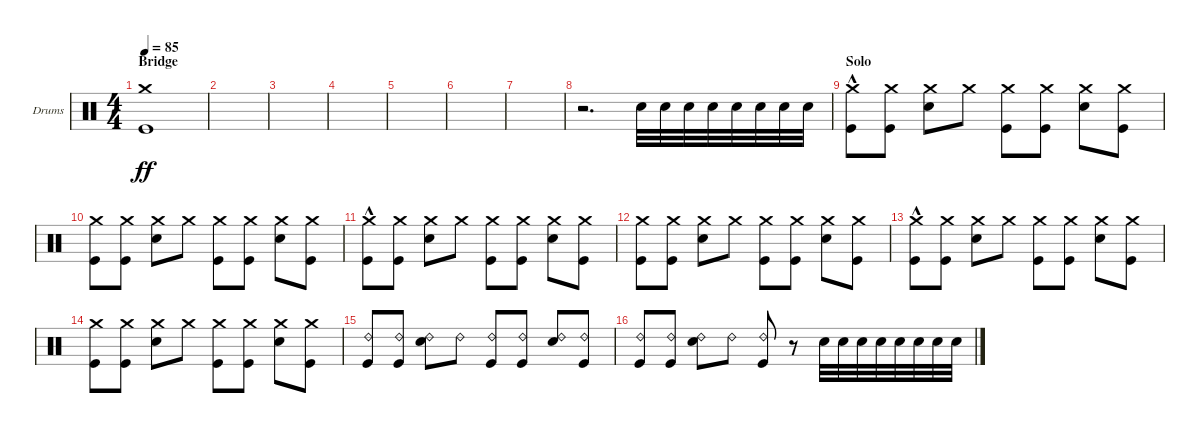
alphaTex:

\bracketExtendMode groupsimilarinstruments
\firstSystemTrackNameOrientation horizontal
\otherSystemsTrackNameOrientation horizontal
\track ("Drumkit" "Drums") {instrument percussion}
\staff {score}
\articulation defaults
\ts (4 4)
\section ("" "Bridge")
\tempo 85
\clef neutral
\ks c
("Kick (hit)" "Crash medium (hit)").1{dy ff} |
|
|
|
|
|
|
r.2{d} "Snare (hit) 2".32 "Snare (hit) 2".32 "Snare (hit) 2".32 "Snare (hit) 2".32 "Snare (hit) 2".32 "Snare (hit) 2".32 "Snare (hit) 2".32 "Snare (hit) 2".32 |
\section ("" "Solo")
("Kick (hit)"{hac} "Crash medium (hit)"{hac}).8 ("Kick (hit)" "Crash medium (hit)").8 ("Snare (hit) 2" "Crash medium (hit)").8 "Crash medium (hit)".8 ("Kick (hit)" "Crash medium (hit)").8 ("Kick (hit)" "Crash medium (hit)").8 ("Snare (hit) 2" "Crash medium (hit)").8 ("Kick (hit)" "Crash medium (hit)").8 |
("Kick (hit)" "Crash medium (hit)").8 ("Kick (hit)" "Crash medium (hit)").8 ("Snare (hit) 2" "Crash medium (hit)").8 "Crash medium (hit)".8 ("Kick (hit)" "Crash medium (hit)").8 ("Kick (hit)" "Crash medium (hit)").8 ("Snare (hit) 2" "Crash medium (hit)").8 ("Kick (hit)" "Crash medium (hit)").8 |
("Kick (hit)"{hac} "Crash medium (hit)"{hac}).8 ("Kick (hit)" "Crash medium (hit)").8 ("Snare (hit) 2" "Crash medium (hit)").8 "Crash medium (hit)".8 ("Kick (hit)" "Crash medium (hit)").8 ("Kick (hit)" "Crash medium (hit)").8 ("Snare (hit) 2" "Crash medium (hit)").8 ("Kick (hit)" "Crash medium (hit)").8 |
("Kick (hit)" "Crash medium (hit)").8 ("Kick (hit)" "Crash medium (hit)").8 ("Snare (hit) 2" "Crash medium (hit)").8 "Crash medium (hit)".8 ("Kick (hit)" "Crash medium (hit)").8 ("Kick (hit)" "Crash medium (hit)").8 ("Snare (hit) 2" "Crash medium (hit)").8 ("Kick (hit)" "Crash medium (hit)").8 |
("Kick (hit)"{hac} "Crash medium (hit)"{hac}).8 ("Kick (hit)" "Crash medium (hit)").8 ("Snare (hit) 2" "Crash medium (hit)").8 "Crash medium (hit)".8 ("Kick (hit)" "Crash medium (hit)").8 ("Kick (hit)" "Crash medium (hit)").8 ("Snare (hit) 2" "Crash medium (hit)").8 ("Kick (hit)" "Crash medium (hit)").8 |
("Kick (hit)" "Crash medium (hit)").8 ("Kick (hit)" "Crash medium (hit)").8 ("Snare (hit) 2" "Crash medium (hit)").8 "Crash medium (hit)".8 ("Kick (hit)" "Crash medium (hit)").8 ("Kick (hit)" "Crash medium (hit)").8 ("Snare (hit) 2" "Crash medium (hit)").8 ("Kick (hit)" "Crash medium (hit)").8 |
("Kick (hit)" "Ride (bell) 2").8 ("Kick (hit)" "Ride (bell) 2").8 ("Snare (hit) 2" "Ride (bell) 2").8 "Ride (bell) 2".8 ("Kick (hit)" "Ride (bell) 2").8 ("Kick (hit)" "Ride (bell) 2").8 ("Snare (hit) 2" "Ride (bell) 2").8 ("Kick (hit)" "Ride (bell) 2").8 |
("Kick (hit)" "Ride (bell) 2").8 ("Kick (hit)" "Ride (bell) 2").8 ("Snare (hit) 2" "Ride (bell) 2").8 "Ride (bell) 2".8 ("Kick (hit)" "Ride (bell) 2").8 r.8 "Snare (hit) 2".32 "Snare (hit) 2".32 "Snare (hit) 2".32 "Snare (hit) 2".32 "Snare (hit) 2".32 "Snare (hit) 2".32 "Snare (hit) 2".32 "Snare (hit) 2".32
